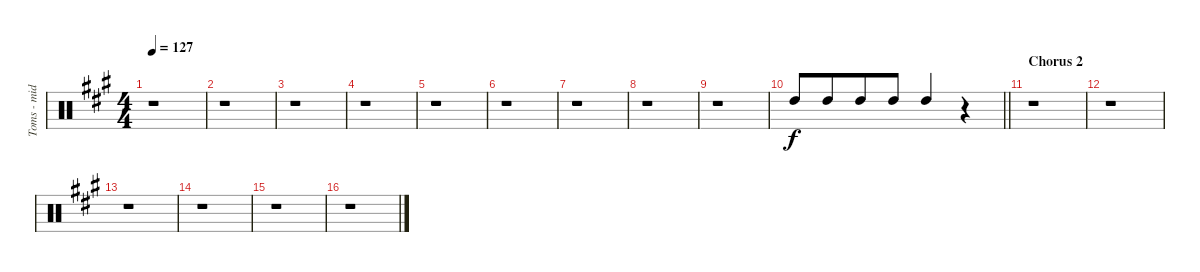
\track ("Toms - middle" "Toms - mid") {instrument percussion}
\staff {score}
\articulation defaults
\ts (4 4)
\tempo 127
\clef neutral
\ks a
r.1{dy f} |
r.1 |
r.1 |
r.1 |
r.1 |
r.1 |
r.1 |
r.1 |
r.1 |
\barLineRight lightlight "High Tom (hit)".8{beam Up} "High Tom (hit)".8{beam Up beam merge} "High Tom (hit)".8{beam Up} "High Tom (hit)".8{beam Up} "High Tom (hit)".4{beam Up}
r.4 |
\section ("" "Chorus 2")
r.1 |
r.1 |
r.1 |
r.1 |
r.1 |
r.1
